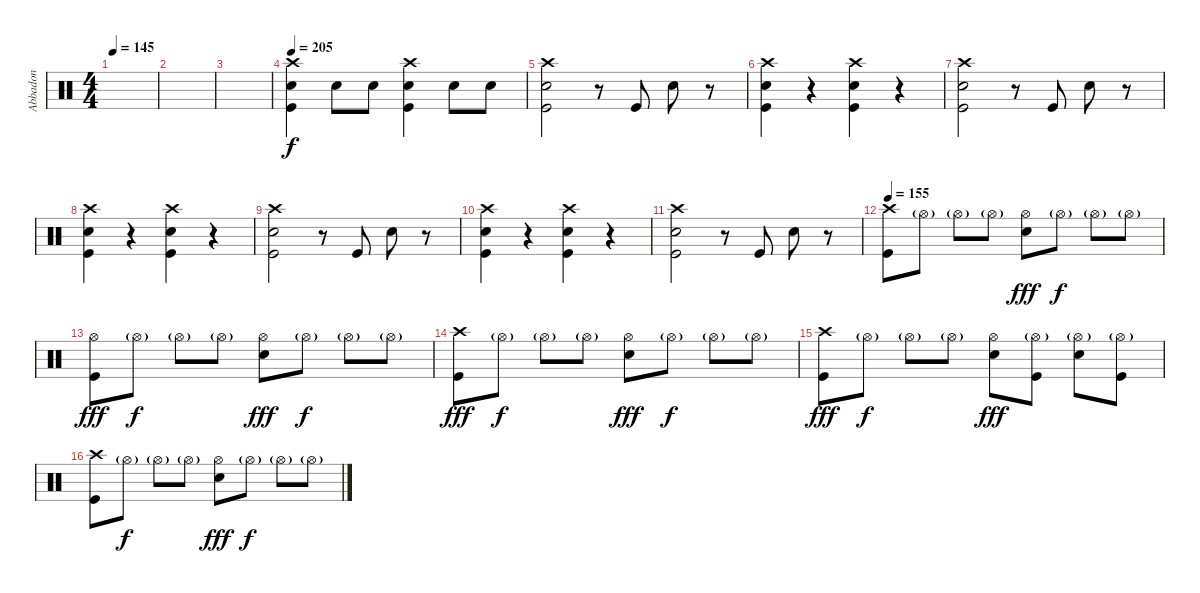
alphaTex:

\track ("Abbadon" "Abbadon") {instrument percussion}
\staff {score}
\articulation defaults
\ts (4 4)
\tempo 145
\clef neutral
\ks c
|
|
|
\tempo 205
("Crash high (hit)" "Electric Snare (hit)" "Kick (hit)").4 "Electric Snare (hit)".8 "Electric Snare (hit)".8 ("Crash high (hit)" "Electric Snare (hit)" "Kick (hit)").4 "Electric Snare (hit)".8 "Electric Snare (hit)".8 |
("Crash high (hit)" "Electric Snare (hit)" "Kick (hit)").2 r.8 "Kick (hit)".8 "Electric Snare (hit)".8 r.8 |
("Crash high (hit)" "Electric Snare (hit)" "Kick (hit)").4 r.4 ("Crash high (hit)" "Electric Snare (hit)" "Kick (hit)").4 r.4 |
("Crash high (hit)" "Electric Snare (hit)" "Kick (hit)").2 r.8 "Kick (hit)".8 "Electric Snare (hit)".8 r.8 |
("Crash high (hit)" "Electric Snare (hit)" "Kick (hit)").4 r.4 ("Crash high (hit)" "Electric Snare (hit)" "Kick (hit)").4 r.4 |
("Crash high (hit)" "Electric Snare (hit)" "Kick (hit)").2 r.8 "Kick (hit)".8 "Electric Snare (hit)".8 r.8 |
("Crash high (hit)" "Electric Snare (hit)" "Kick (hit)").4 r.4 ("Crash high (hit)" "Electric Snare (hit)" "Kick (hit)").4 r.4 |
("Crash high (hit)" "Electric Snare (hit)" "Kick (hit)").2 r.8 "Kick (hit)".8 "Electric Snare (hit)".8 r.8 |
\tempo 155
("Crash high (hit)" "Kick (hit)").8 "Hi-Hat (open)"{g}.8{dy f} "Hi-Hat (open)"{g}.8 "Hi-Hat (open)"{g}.8 ("Hi-Hat (open)" "Electric Snare (hit)").8{dy fff} "Hi-Hat (open)"{g}.8{dy f} "Hi-Hat (open)"{g}.8 "Hi-Hat (open)"{g}.8 |
("Hi-Hat (open)" "Kick (hit)").8{dy fff} "Hi-Hat (open)"{g}.8{dy f} "Hi-Hat (open)"{g}.8 "Hi-Hat (open)"{g}.8 ("Hi-Hat (open)" "Electric Snare (hit)").8{dy fff} "Hi-Hat (open)"{g}.8{dy f} "Hi-Hat (open)"{g}.8 "Hi-Hat (open)"{g}.8 |
("Crash high (hit)" "Kick (hit)").8{dy fff} "Hi-Hat (open)"{g}.8{dy f} "Hi-Hat (open)"{g}.8 "Hi-Hat (open)"{g}.8 ("Hi-Hat (open)" "Electric Snare (hit)").8{dy fff} "Hi-Hat (open)"{g}.8{dy f} "Hi-Hat (open)"{g}.8 "Hi-Hat (open)"{g}.8 |
("Crash high (hit)" "Kick (hit)").8{dy fff} "Hi-Hat (open)"{g}.8{dy f} "Hi-Hat (open)"{g}.8 "Hi-Hat (open)"{g}.8 ("Hi-Hat (open)" "Electric Snare (hit)").8{dy fff} ("Hi-Hat (open)"{g} "Kick (hit)").8 ("Hi-Hat (open)"{g} "Electric Snare (hit)").8 ("Hi-Hat (open)"{g} "Kick (hit)").8 |
("Crash high (hit)" "Kick (hit)").8 "Hi-Hat (open)"{g}.8{dy f} "Hi-Hat (open)"{g}.8 "Hi-Hat (open)"{g}.8 ("Hi-Hat (open)" "Electric Snare (hit)").8{dy fff} "Hi-Hat (open)"{g}.8{dy f} "Hi-Hat (open)"{g}.8 "Hi-Hat (open)"{g}.8
